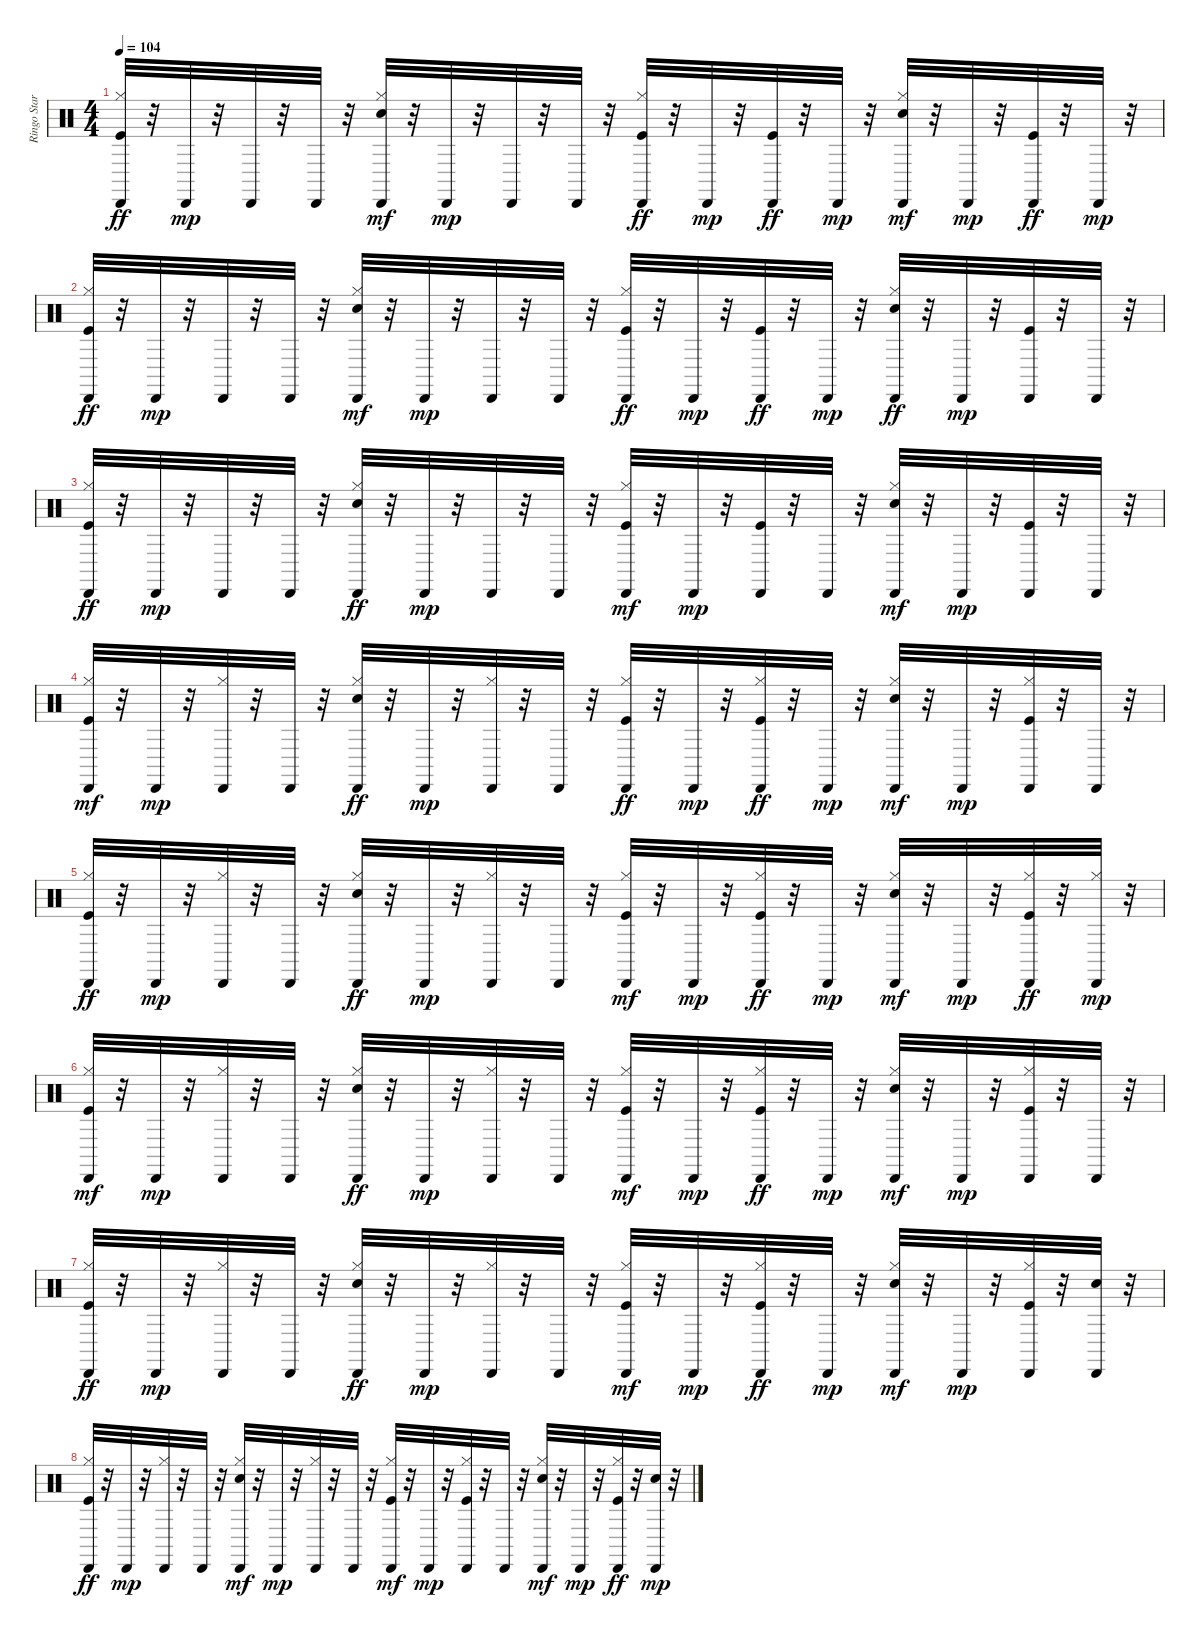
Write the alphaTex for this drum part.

\track ("Ringo Starr - Drums" "Ringo Star") {instrument percussion}
\staff {score}
\articulation defaults
\ts (4 4)
\tempo 104
\clef neutral
\ks c
("Hi-Hat (closed)" "Cabasa (hit)" "Kick (hit)").32{dy ff} r.32 "Cabasa (hit)".32{dy mp} r.32 "Cabasa (hit)".32 r.32 "Cabasa (hit)".32 r.32 ("Hi-Hat (closed)" "Snare (hit) 2" "Cabasa (hit)").32{dy mf} r.32 "Cabasa (hit)".32{dy mp} r.32 "Cabasa (hit)".32 r.32 "Cabasa (hit)".32 r.32 ("Hi-Hat (closed)" "Cabasa (hit)" "Kick (hit)").32{dy ff} r.32 "Cabasa (hit)".32{dy mp} r.32 ("Cabasa (hit)" "Kick (hit)").32{dy ff} r.32 "Cabasa (hit)".32{dy mp} r.32 ("Hi-Hat (closed)" "Snare (hit) 2" "Cabasa (hit)").32{dy mf} r.32 "Cabasa (hit)".32{dy mp} r.32 ("Cabasa (hit)" "Kick (hit)").32{dy ff} r.32 "Cabasa (hit)".32{dy mp} r.32 |
("Hi-Hat (closed)" "Cabasa (hit)" "Kick (hit)").32{dy ff} r.32 "Cabasa (hit)".32{dy mp} r.32 "Cabasa (hit)".32 r.32 "Cabasa (hit)".32 r.32 ("Hi-Hat (closed)" "Snare (hit) 2" "Cabasa (hit)").32{dy mf} r.32 "Cabasa (hit)".32{dy mp} r.32 "Cabasa (hit)".32 r.32 "Cabasa (hit)".32 r.32 ("Hi-Hat (closed)" "Cabasa (hit)" "Kick (hit)").32{dy ff} r.32 "Cabasa (hit)".32{dy mp} r.32 ("Cabasa (hit)" "Kick (hit)").32{dy ff} r.32 "Cabasa (hit)".32{dy mp} r.32 ("Hi-Hat (closed)" "Cabasa (hit)" "Snare (hit) 2").32{dy ff} r.32 "Cabasa (hit)".32{dy mp} r.32 ("Kick (hit)" "Cabasa (hit)").32 r.32 "Cabasa (hit)".32 r.32 |
("Hi-Hat (closed)" "Cabasa (hit)" "Kick (hit)").32{dy ff} r.32 "Cabasa (hit)".32{dy mp} r.32 "Cabasa (hit)".32 r.32 "Cabasa (hit)".32 r.32 ("Hi-Hat (closed)" "Cabasa (hit)" "Snare (hit) 2").32{dy ff} r.32 "Cabasa (hit)".32{dy mp} r.32 "Cabasa (hit)".32 r.32 "Cabasa (hit)".32 r.32 ("Hi-Hat (closed)" "Kick (hit)" "Cabasa (hit)").32{dy mf} r.32 "Cabasa (hit)".32{dy mp} r.32 ("Kick (hit)" "Cabasa (hit)").32 r.32 "Cabasa (hit)".32 r.32 ("Hi-Hat (closed)" "Snare (hit) 2" "Cabasa (hit)").32{dy mf} r.32 "Cabasa (hit)".32{dy mp} r.32 ("Kick (hit)" "Cabasa (hit)").32 r.32 "Cabasa (hit)".32 r.32 |
("Hi-Hat (closed)" "Kick (hit)" "Cabasa (hit)").32{dy mf} r.32 "Cabasa (hit)".32{dy mp} r.32 ("Hi-Hat (closed)" "Cabasa (hit)").32 r.32 "Cabasa (hit)".32 r.32 ("Hi-Hat (closed)" "Cabasa (hit)" "Snare (hit) 2").32{dy ff} r.32 "Cabasa (hit)".32{dy mp} r.32 ("Hi-Hat (closed)" "Cabasa (hit)").32 r.32 "Cabasa (hit)".32 r.32 ("Hi-Hat (closed)" "Cabasa (hit)" "Kick (hit)").32{dy ff} r.32 "Cabasa (hit)".32{dy mp} r.32 ("Hi-Hat (closed)" "Cabasa (hit)" "Kick (hit)").32{dy ff} r.32 "Cabasa (hit)".32{dy mp} r.32 ("Hi-Hat (closed)" "Snare (hit) 2" "Cabasa (hit)").32{dy mf} r.32 "Cabasa (hit)".32{dy mp} r.32 ("Hi-Hat (closed)" "Kick (hit)" "Cabasa (hit)").32 r.32 "Cabasa (hit)".32 r.32 |
("Hi-Hat (closed)" "Cabasa (hit)" "Kick (hit)").32{dy ff} r.32 "Cabasa (hit)".32{dy mp} r.32 ("Hi-Hat (closed)" "Cabasa (hit)").32 r.32 "Cabasa (hit)".32 r.32 ("Hi-Hat (closed)" "Cabasa (hit)" "Snare (hit) 2").32{dy ff} r.32 "Cabasa (hit)".32{dy mp} r.32 ("Hi-Hat (closed)" "Cabasa (hit)").32 r.32 "Cabasa (hit)".32 r.32 ("Hi-Hat (closed)" "Kick (hit)" "Cabasa (hit)").32{dy mf} r.32 "Cabasa (hit)".32{dy mp} r.32 ("Hi-Hat (closed)" "Cabasa (hit)" "Kick (hit)").32{dy ff} r.32 "Cabasa (hit)".32{dy mp} r.32 ("Hi-Hat (closed)" "Snare (hit) 2" "Cabasa (hit)").32{dy mf} r.32 "Cabasa (hit)".32{dy mp} r.32 ("Hi-Hat (closed)" "Cabasa (hit)" "Kick (hit)").32{dy ff} r.32 ("Hi-Hat (closed)" "Cabasa (hit)").32{dy mp} r.32 |
("Hi-Hat (closed)" "Kick (hit)" "Cabasa (hit)").32{dy mf} r.32 "Cabasa (hit)".32{dy mp} r.32 ("Hi-Hat (closed)" "Cabasa (hit)").32 r.32 "Cabasa (hit)".32 r.32 ("Hi-Hat (closed)" "Cabasa (hit)" "Snare (hit) 2").32{dy ff} r.32 "Cabasa (hit)".32{dy mp} r.32 ("Hi-Hat (closed)" "Cabasa (hit)").32 r.32 "Cabasa (hit)".32 r.32 ("Hi-Hat (closed)" "Kick (hit)" "Cabasa (hit)").32{dy mf} r.32 "Cabasa (hit)".32{dy mp} r.32 ("Hi-Hat (closed)" "Cabasa (hit)" "Kick (hit)").32{dy ff} r.32 "Cabasa (hit)".32{dy mp} r.32 ("Hi-Hat (closed)" "Snare (hit) 2" "Cabasa (hit)").32{dy mf} r.32 "Cabasa (hit)".32{dy mp} r.32 ("Hi-Hat (closed)" "Kick (hit)" "Cabasa (hit)").32 r.32 "Cabasa (hit)".32 r.32 |
("Hi-Hat (closed)" "Cabasa (hit)" "Kick (hit)").32{dy ff} r.32 "Cabasa (hit)".32{dy mp} r.32 ("Hi-Hat (closed)" "Cabasa (hit)").32 r.32 "Cabasa (hit)".32 r.32 ("Hi-Hat (closed)" "Cabasa (hit)" "Snare (hit) 2").32{dy ff} r.32 "Cabasa (hit)".32{dy mp} r.32 ("Hi-Hat (closed)" "Cabasa (hit)").32 r.32 "Cabasa (hit)".32 r.32 ("Hi-Hat (closed)" "Kick (hit)" "Cabasa (hit)").32{dy mf} r.32 "Cabasa (hit)".32{dy mp} r.32 ("Hi-Hat (closed)" "Cabasa (hit)" "Kick (hit)").32{dy ff} r.32 "Cabasa (hit)".32{dy mp} r.32 ("Hi-Hat (closed)" "Snare (hit) 2" "Cabasa (hit)").32{dy mf} r.32 "Cabasa (hit)".32{dy mp} r.32 ("Hi-Hat (closed)" "Kick (hit)" "Cabasa (hit)").32 r.32 ("Snare (hit) 2" "Cabasa (hit)").32 r.32 |
("Hi-Hat (closed)" "Cabasa (hit)" "Kick (hit)").32{dy ff} r.32 "Cabasa (hit)".32{dy mp} r.32 ("Hi-Hat (closed)" "Cabasa (hit)").32 r.32 "Cabasa (hit)".32 r.32 ("Hi-Hat (closed)" "Snare (hit) 2" "Cabasa (hit)").32{dy mf} r.32 "Cabasa (hit)".32{dy mp} r.32 ("Hi-Hat (closed)" "Cabasa (hit)").32 r.32 "Cabasa (hit)".32 r.32 ("Hi-Hat (closed)" "Kick (hit)" "Cabasa (hit)").32{dy mf} r.32 "Cabasa (hit)".32{dy mp} r.32 ("Hi-Hat (closed)" "Kick (hit)" "Cabasa (hit)").32 r.32 "Cabasa (hit)".32 r.32 ("Hi-Hat (closed)" "Snare (hit) 2" "Cabasa (hit)").32{dy mf} r.32 "Cabasa (hit)".32{dy mp} r.32 ("Hi-Hat (closed)" "Cabasa (hit)" "Kick (hit)").32{dy ff} r.32 ("Snare (hit) 2" "Cabasa (hit)").32{dy mp} r.32
